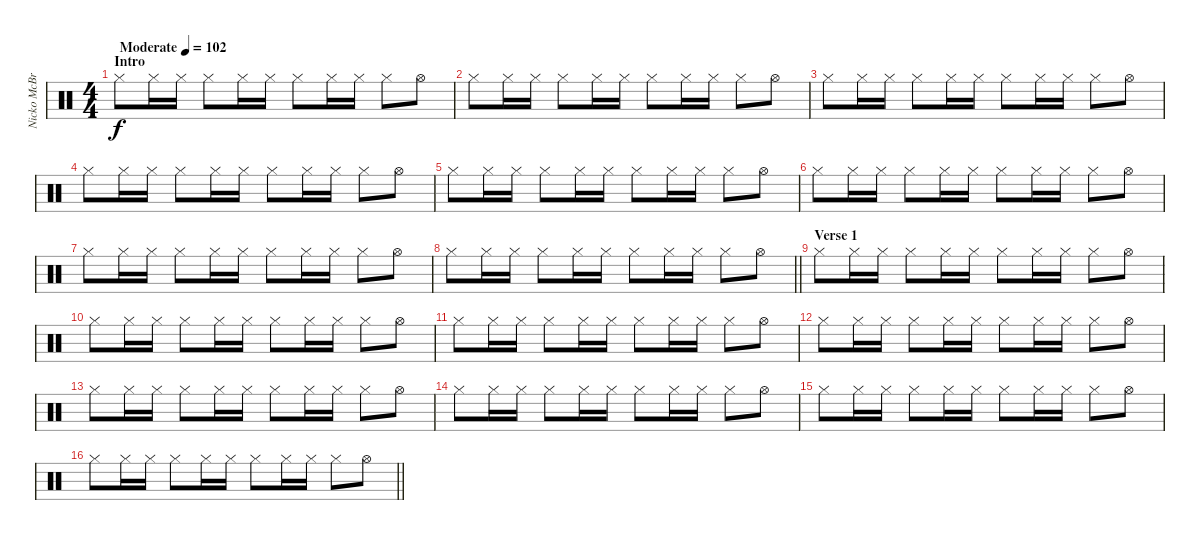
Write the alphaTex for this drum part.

\track ("Nicko McBrain" "Nicko McBr") {instrument percussion}
\staff {score}
\articulation defaults
\ts (4 4)
\section ("" "Intro")
\tempo (102 "Moderate")
\clef neutral
\ks c "Hi-Hat (closed)".8{dy f} "Hi-Hat (closed)".16 "Hi-Hat (closed)".16 "Hi-Hat (closed)".8 "Hi-Hat (closed)".16 "Hi-Hat (closed)".16 "Hi-Hat (closed)".8 "Hi-Hat (closed)".16 "Hi-Hat (closed)".16 "Hi-Hat (closed)".8 "Hi-Hat (open)".8
|
"Hi-Hat (closed)".8 "Hi-Hat (closed)".16 "Hi-Hat (closed)".16 "Hi-Hat (closed)".8 "Hi-Hat (closed)".16 "Hi-Hat (closed)".16 "Hi-Hat (closed)".8 "Hi-Hat (closed)".16 "Hi-Hat (closed)".16 "Hi-Hat (closed)".8 "Hi-Hat (open)".8 |
"Hi-Hat (closed)".8 "Hi-Hat (closed)".16 "Hi-Hat (closed)".16 "Hi-Hat (closed)".8 "Hi-Hat (closed)".16 "Hi-Hat (closed)".16 "Hi-Hat (closed)".8 "Hi-Hat (closed)".16 "Hi-Hat (closed)".16 "Hi-Hat (closed)".8 "Hi-Hat (open)".8 |
"Hi-Hat (closed)".8 "Hi-Hat (closed)".16 "Hi-Hat (closed)".16 "Hi-Hat (closed)".8 "Hi-Hat (closed)".16 "Hi-Hat (closed)".16 "Hi-Hat (closed)".8 "Hi-Hat (closed)".16 "Hi-Hat (closed)".16 "Hi-Hat (closed)".8 "Hi-Hat (open)".8 |
"Hi-Hat (closed)".8 "Hi-Hat (closed)".16 "Hi-Hat (closed)".16 "Hi-Hat (closed)".8 "Hi-Hat (closed)".16 "Hi-Hat (closed)".16 "Hi-Hat (closed)".8 "Hi-Hat (closed)".16 "Hi-Hat (closed)".16 "Hi-Hat (closed)".8 "Hi-Hat (open)".8 |
"Hi-Hat (closed)".8 "Hi-Hat (closed)".16 "Hi-Hat (closed)".16 "Hi-Hat (closed)".8 "Hi-Hat (closed)".16 "Hi-Hat (closed)".16 "Hi-Hat (closed)".8 "Hi-Hat (closed)".16 "Hi-Hat (closed)".16 "Hi-Hat (closed)".8 "Hi-Hat (open)".8 |
"Hi-Hat (closed)".8 "Hi-Hat (closed)".16 "Hi-Hat (closed)".16 "Hi-Hat (closed)".8 "Hi-Hat (closed)".16 "Hi-Hat (closed)".16 "Hi-Hat (closed)".8 "Hi-Hat (closed)".16 "Hi-Hat (closed)".16 "Hi-Hat (closed)".8 "Hi-Hat (open)".8 |
\barLineRight lightlight "Hi-Hat (closed)".8 "Hi-Hat (closed)".16 "Hi-Hat (closed)".16 "Hi-Hat (closed)".8 "Hi-Hat (closed)".16 "Hi-Hat (closed)".16 "Hi-Hat (closed)".8 "Hi-Hat (closed)".16 "Hi-Hat (closed)".16 "Hi-Hat (closed)".8 "Hi-Hat (open)".8
|
\section ("" "Verse 1")
"Hi-Hat (closed)".8 "Hi-Hat (closed)".16 "Hi-Hat (closed)".16 "Hi-Hat (closed)".8 "Hi-Hat (closed)".16 "Hi-Hat (closed)".16 "Hi-Hat (closed)".8 "Hi-Hat (closed)".16 "Hi-Hat (closed)".16 "Hi-Hat (closed)".8 "Hi-Hat (open)".8 |
"Hi-Hat (closed)".8 "Hi-Hat (closed)".16 "Hi-Hat (closed)".16 "Hi-Hat (closed)".8 "Hi-Hat (closed)".16 "Hi-Hat (closed)".16 "Hi-Hat (closed)".8 "Hi-Hat (closed)".16 "Hi-Hat (closed)".16 "Hi-Hat (closed)".8 "Hi-Hat (open)".8 |
"Hi-Hat (closed)".8 "Hi-Hat (closed)".16 "Hi-Hat (closed)".16 "Hi-Hat (closed)".8 "Hi-Hat (closed)".16 "Hi-Hat (closed)".16 "Hi-Hat (closed)".8 "Hi-Hat (closed)".16 "Hi-Hat (closed)".16 "Hi-Hat (closed)".8 "Hi-Hat (open)".8 |
"Hi-Hat (closed)".8 "Hi-Hat (closed)".16 "Hi-Hat (closed)".16 "Hi-Hat (closed)".8 "Hi-Hat (closed)".16 "Hi-Hat (closed)".16 "Hi-Hat (closed)".8 "Hi-Hat (closed)".16 "Hi-Hat (closed)".16 "Hi-Hat (closed)".8 "Hi-Hat (open)".8 |
"Hi-Hat (closed)".8 "Hi-Hat (closed)".16 "Hi-Hat (closed)".16 "Hi-Hat (closed)".8 "Hi-Hat (closed)".16 "Hi-Hat (closed)".16 "Hi-Hat (closed)".8 "Hi-Hat (closed)".16 "Hi-Hat (closed)".16 "Hi-Hat (closed)".8 "Hi-Hat (open)".8 |
"Hi-Hat (closed)".8 "Hi-Hat (closed)".16 "Hi-Hat (closed)".16 "Hi-Hat (closed)".8 "Hi-Hat (closed)".16 "Hi-Hat (closed)".16 "Hi-Hat (closed)".8 "Hi-Hat (closed)".16 "Hi-Hat (closed)".16 "Hi-Hat (closed)".8 "Hi-Hat (open)".8 |
"Hi-Hat (closed)".8 "Hi-Hat (closed)".16 "Hi-Hat (closed)".16 "Hi-Hat (closed)".8 "Hi-Hat (closed)".16 "Hi-Hat (closed)".16 "Hi-Hat (closed)".8 "Hi-Hat (closed)".16 "Hi-Hat (closed)".16 "Hi-Hat (closed)".8 "Hi-Hat (open)".8 |
\barLineRight lightlight "Hi-Hat (closed)".8 "Hi-Hat (closed)".16 "Hi-Hat (closed)".16 "Hi-Hat (closed)".8 "Hi-Hat (closed)".16 "Hi-Hat (closed)".16 "Hi-Hat (closed)".8 "Hi-Hat (closed)".16 "Hi-Hat (closed)".16 "Hi-Hat (closed)".8 "Hi-Hat (open)".8
